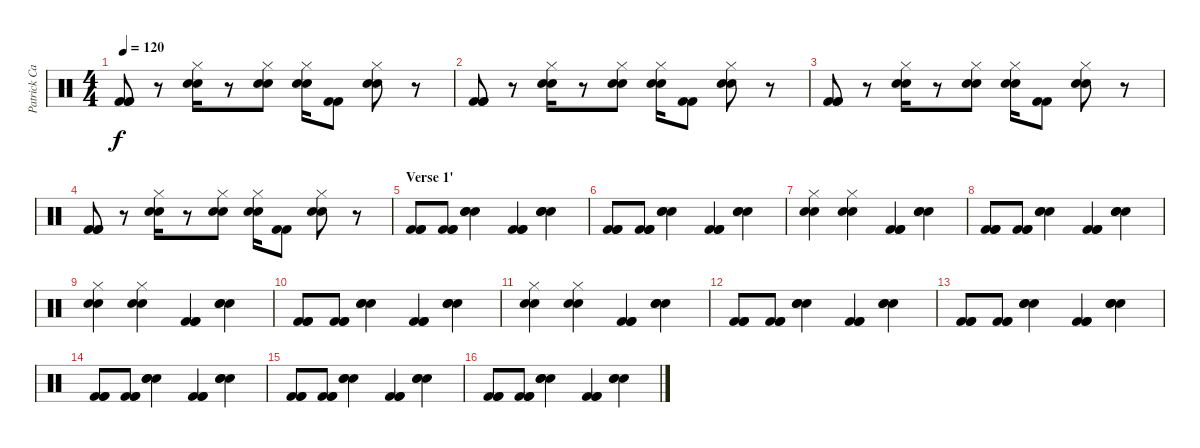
\track ("Patrick Carney (Drums)" "Patrick Ca") {instrument percussion}
\staff {score}
\articulation defaults
\ts (4 4)
\tempo 120
\clef neutral
\ks c
("Kick (hit) 2" "Kick (hit) 2" "Kick (hit) 2").8{dy f} r.8 ("Electric Snare (hit)" "Snare (hit) 2" "Hi-Hat (closed)").16 r.8 ("Electric Snare (hit)" "Snare (hit) 2" "Hi-Hat (closed)").8 ("Electric Snare (hit)" "Snare (hit) 2" "Hi-Hat (closed)").16 ("Kick (hit) 2" "Kick (hit) 2").8 ("Electric Snare (hit)" "Snare (hit) 2" "Hi-Hat (closed)").8 r.8 |
("Kick (hit) 2" "Kick (hit) 2" "Kick (hit) 2").8 r.8 ("Electric Snare (hit)" "Snare (hit) 2" "Hi-Hat (closed)").16 r.8 ("Electric Snare (hit)" "Snare (hit) 2" "Hi-Hat (closed)").8 ("Electric Snare (hit)" "Snare (hit) 2" "Hi-Hat (closed)").16 ("Kick (hit) 2" "Kick (hit) 2").8 ("Electric Snare (hit)" "Snare (hit) 2" "Hi-Hat (closed)").8 r.8 |
("Kick (hit) 2" "Kick (hit) 2" "Kick (hit) 2").8 r.8 ("Electric Snare (hit)" "Snare (hit) 2" "Hi-Hat (closed)").16 r.8 ("Electric Snare (hit)" "Snare (hit) 2" "Hi-Hat (closed)").8 ("Electric Snare (hit)" "Snare (hit) 2" "Hi-Hat (closed)").16 ("Kick (hit) 2" "Kick (hit) 2").8 ("Electric Snare (hit)" "Snare (hit) 2" "Hi-Hat (closed)").8 r.8 |
("Kick (hit) 2" "Kick (hit) 2" "Kick (hit) 2").8 r.8 ("Electric Snare (hit)" "Snare (hit) 2" "Hi-Hat (closed)").16 r.8 ("Electric Snare (hit)" "Snare (hit) 2" "Hi-Hat (closed)").8 ("Electric Snare (hit)" "Snare (hit) 2" "Hi-Hat (closed)").16 ("Kick (hit) 2" "Kick (hit) 2").8 ("Electric Snare (hit)" "Snare (hit) 2" "Hi-Hat (closed)").8 r.8 |
\section ("" "Verse 1'")
("Kick (hit) 2" "Kick (hit) 2" "Kick (hit) 2").8 ("Kick (hit) 2" "Kick (hit) 2" "Kick (hit) 2").8 ("Electric Snare (hit)" "Snare (hit) 2" "Snare (hit) 2").4 ("Kick (hit) 2" "Kick (hit) 2" "Kick (hit) 2").4 ("Electric Snare (hit)" "Snare (hit) 2" "Snare (hit) 2").4 |
("Kick (hit) 2" "Kick (hit) 2" "Kick (hit) 2").8 ("Kick (hit) 2" "Kick (hit) 2" "Kick (hit) 2").8 ("Electric Snare (hit)" "Snare (hit) 2" "Snare (hit) 2").4 ("Kick (hit) 2" "Kick (hit) 2" "Kick (hit) 2").4 ("Electric Snare (hit)" "Snare (hit) 2" "Snare (hit) 2").4 |
("Electric Snare (hit)" "Snare (hit) 2" "Hi-Hat (closed)").4 ("Electric Snare (hit)" "Snare (hit) 2" "Hi-Hat (closed)").4 ("Kick (hit) 2" "Kick (hit) 2" "Kick (hit) 2").4 ("Electric Snare (hit)" "Snare (hit) 2" "Snare (hit) 2").4 |
("Kick (hit) 2" "Kick (hit) 2" "Kick (hit) 2").8 ("Kick (hit) 2" "Kick (hit) 2" "Kick (hit) 2").8 ("Electric Snare (hit)" "Snare (hit) 2" "Snare (hit) 2").4 ("Kick (hit) 2" "Kick (hit) 2" "Kick (hit) 2").4 ("Electric Snare (hit)" "Snare (hit) 2" "Snare (hit) 2").4 |
("Electric Snare (hit)" "Snare (hit) 2" "Hi-Hat (closed)").4 ("Electric Snare (hit)" "Snare (hit) 2" "Hi-Hat (closed)").4 ("Kick (hit) 2" "Kick (hit) 2" "Kick (hit) 2").4 ("Electric Snare (hit)" "Snare (hit) 2" "Snare (hit) 2").4 |
("Kick (hit) 2" "Kick (hit) 2" "Kick (hit) 2").8 ("Kick (hit) 2" "Kick (hit) 2" "Kick (hit) 2").8 ("Electric Snare (hit)" "Snare (hit) 2" "Snare (hit) 2").4 ("Kick (hit) 2" "Kick (hit) 2" "Kick (hit) 2").4 ("Electric Snare (hit)" "Snare (hit) 2" "Snare (hit) 2").4 |
("Electric Snare (hit)" "Snare (hit) 2" "Hi-Hat (closed)").4 ("Electric Snare (hit)" "Snare (hit) 2" "Hi-Hat (closed)").4 ("Kick (hit) 2" "Kick (hit) 2" "Kick (hit) 2").4 ("Electric Snare (hit)" "Snare (hit) 2" "Snare (hit) 2").4 |
("Kick (hit) 2" "Kick (hit) 2" "Kick (hit) 2").8 ("Kick (hit) 2" "Kick (hit) 2" "Kick (hit) 2").8 ("Electric Snare (hit)" "Snare (hit) 2" "Snare (hit) 2").4 ("Kick (hit) 2" "Kick (hit) 2" "Kick (hit) 2").4 ("Electric Snare (hit)" "Snare (hit) 2" "Snare (hit) 2").4 |
("Kick (hit) 2" "Kick (hit) 2" "Kick (hit) 2").8 ("Kick (hit) 2" "Kick (hit) 2" "Kick (hit) 2").8 ("Electric Snare (hit)" "Snare (hit) 2" "Snare (hit) 2").4 ("Kick (hit) 2" "Kick (hit) 2" "Kick (hit) 2").4 ("Electric Snare (hit)" "Snare (hit) 2" "Snare (hit) 2").4 |
("Kick (hit) 2" "Kick (hit) 2" "Kick (hit) 2").8 ("Kick (hit) 2" "Kick (hit) 2" "Kick (hit) 2").8 ("Electric Snare (hit)" "Snare (hit) 2" "Snare (hit) 2").4 ("Kick (hit) 2" "Kick (hit) 2" "Kick (hit) 2").4 ("Electric Snare (hit)" "Snare (hit) 2" "Snare (hit) 2").4 |
("Kick (hit) 2" "Kick (hit) 2" "Kick (hit) 2").8 ("Kick (hit) 2" "Kick (hit) 2" "Kick (hit) 2").8 ("Electric Snare (hit)" "Snare (hit) 2" "Snare (hit) 2").4 ("Kick (hit) 2" "Kick (hit) 2" "Kick (hit) 2").4 ("Electric Snare (hit)" "Snare (hit) 2" "Snare (hit) 2").4 |
("Kick (hit) 2" "Kick (hit) 2" "Kick (hit) 2").8 ("Kick (hit) 2" "Kick (hit) 2" "Kick (hit) 2").8 ("Electric Snare (hit)" "Snare (hit) 2" "Snare (hit) 2").4 ("Kick (hit) 2" "Kick (hit) 2" "Kick (hit) 2").4 ("Electric Snare (hit)" "Snare (hit) 2" "Snare (hit) 2").4
